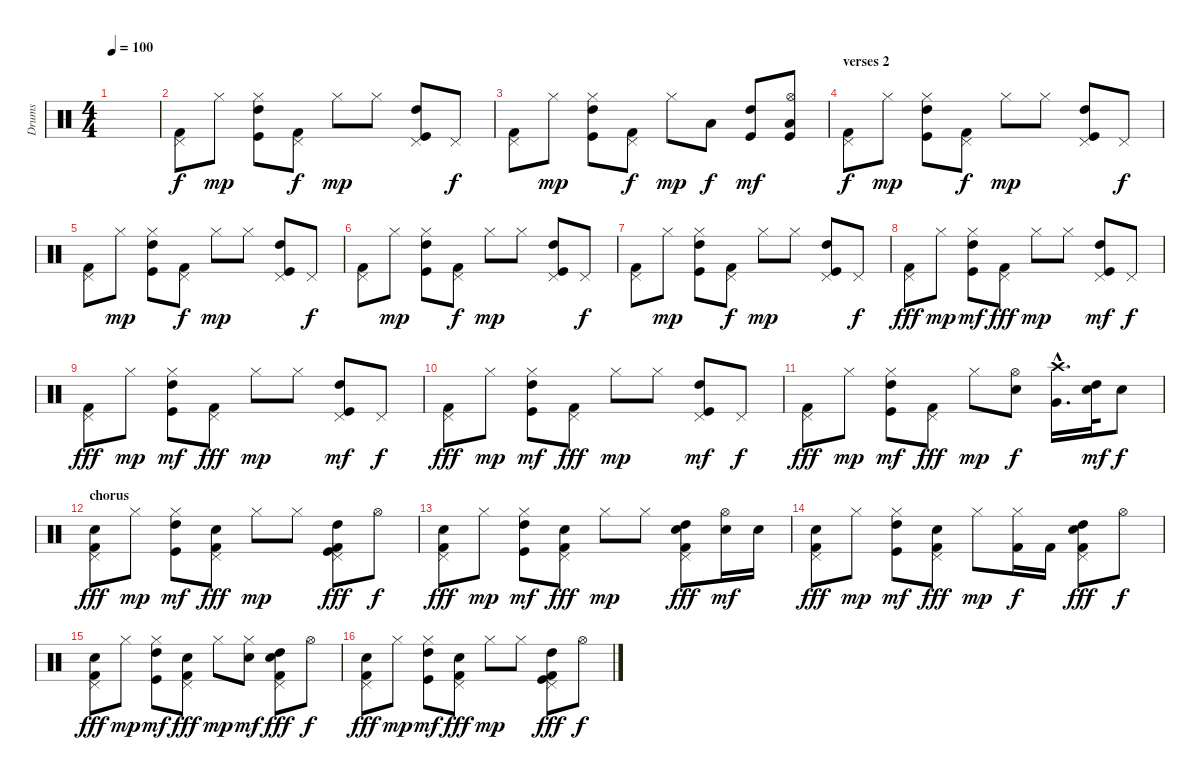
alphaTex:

\track ("Drums" "Drums") {instrument percussion}
\staff {score}
\articulation defaults
\ts (4 4)
\tempo 100
\clef neutral
\ks c
|
("Pedal Hi-Hat (hit)" "Kick (hit) 2").8{dy f} "Hi-Hat (closed)".8{dy mp} ("Hi-Hat (closed)" "Kick (hit)" "High Tom (hit)").8 ("Pedal Hi-Hat (hit)" "Kick (hit) 2").8{dy f} "Hi-Hat (closed)".8{dy mp} "Hi-Hat (closed)".8 ("Pedal Hi-Hat (hit)" "Kick (hit)" "High Tom (hit)").8 "Pedal Hi-Hat (hit)".8{dy f} |
("Pedal Hi-Hat (hit)" "Kick (hit) 2").8 "Hi-Hat (closed)".8{dy mp} ("Hi-Hat (closed)" "Kick (hit)" "High Tom (hit)").8 ("Pedal Hi-Hat (hit)" "Kick (hit) 2").8{dy f} "Hi-Hat (closed)".8{dy mp} "Low Tom (hit)".8{dy f} ("Kick (hit)" "High Tom (hit)").8{dy mf} ("Hi-Hat (open)" "Kick (hit)" "Low Floor Tom (hit)").8 |
\section ("" "verses 2")
("Pedal Hi-Hat (hit)" "Kick (hit) 2").8{dy f} "Hi-Hat (closed)".8{dy mp} ("Hi-Hat (closed)" "Kick (hit)" "High Tom (hit)").8 ("Pedal Hi-Hat (hit)" "Kick (hit) 2").8{dy f} "Hi-Hat (closed)".8{dy mp} "Hi-Hat (closed)".8 ("Pedal Hi-Hat (hit)" "Kick (hit)" "High Tom (hit)").8 "Pedal Hi-Hat (hit)".8{dy f} |
("Pedal Hi-Hat (hit)" "Kick (hit) 2").8 "Hi-Hat (closed)".8{dy mp} ("Hi-Hat (closed)" "Kick (hit)" "High Tom (hit)").8 ("Pedal Hi-Hat (hit)" "Kick (hit) 2").8{dy f} "Hi-Hat (closed)".8{dy mp} "Hi-Hat (closed)".8 ("Pedal Hi-Hat (hit)" "Kick (hit)" "High Tom (hit)").8 "Pedal Hi-Hat (hit)".8{dy f} |
("Pedal Hi-Hat (hit)" "Kick (hit) 2").8 "Hi-Hat (closed)".8{dy mp} ("Hi-Hat (closed)" "Kick (hit)" "High Tom (hit)").8 ("Pedal Hi-Hat (hit)" "Kick (hit) 2").8{dy f} "Hi-Hat (closed)".8{dy mp} "Hi-Hat (closed)".8 ("Pedal Hi-Hat (hit)" "Kick (hit)" "High Tom (hit)").8 "Pedal Hi-Hat (hit)".8{dy f} |
("Pedal Hi-Hat (hit)" "Kick (hit) 2").8 "Hi-Hat (closed)".8{dy mp} ("Hi-Hat (closed)" "Kick (hit)" "High Tom (hit)").8 ("Pedal Hi-Hat (hit)" "Kick (hit) 2").8{dy f} "Hi-Hat (closed)".8{dy mp} "Hi-Hat (closed)".8 ("Pedal Hi-Hat (hit)" "Kick (hit)" "High Tom (hit)").8 "Pedal Hi-Hat (hit)".8{dy f} |
("Pedal Hi-Hat (hit)" "Kick (hit) 2").8{dy fff} "Hi-Hat (closed)".8{dy mp} ("Hi-Hat (closed)" "Kick (hit)" "High Tom (hit)").8{dy mf} ("Pedal Hi-Hat (hit)" "Kick (hit) 2").8{dy fff} "Hi-Hat (closed)".8{dy mp} "Hi-Hat (closed)".8 ("Pedal Hi-Hat (hit)" "Kick (hit)" "High Tom (hit)").8{dy mf} "Pedal Hi-Hat (hit)".8{dy f} |
("Pedal Hi-Hat (hit)" "Kick (hit) 2").8{dy fff} "Hi-Hat (closed)".8{dy mp} ("Hi-Hat (closed)" "Kick (hit)" "High Tom (hit)").8{dy mf} ("Pedal Hi-Hat (hit)" "Kick (hit) 2").8{dy fff} "Hi-Hat (closed)".8{dy mp} "Hi-Hat (closed)".8 ("Pedal Hi-Hat (hit)" "Kick (hit)" "High Tom (hit)").8{dy mf} "Pedal Hi-Hat (hit)".8{dy f} |
("Pedal Hi-Hat (hit)" "Kick (hit) 2").8{dy fff} "Hi-Hat (closed)".8{dy mp} ("Hi-Hat (closed)" "Kick (hit)" "High Tom (hit)").8{dy mf} ("Pedal Hi-Hat (hit)" "Kick (hit) 2").8{dy fff} "Hi-Hat (closed)".8{dy mp} "Hi-Hat (closed)".8 ("Pedal Hi-Hat (hit)" "Kick (hit)" "High Tom (hit)").8{dy mf} "Pedal Hi-Hat (hit)".8{dy f} |
("Pedal Hi-Hat (hit)" "Kick (hit) 2").8{dy fff} "Hi-Hat (closed)".8{dy mp} ("Hi-Hat (closed)" "Kick (hit)" "High Tom (hit)").8{dy mf} ("Pedal Hi-Hat (hit)" "Kick (hit) 2").8{dy fff} "Hi-Hat (closed)".8{dy mp} ("Hi-Hat (open)" "Snare (hit) 2").8{dy f} ("Crash high (hit)"{hac} "Very Low Tom (hit)"{hac}).16{d} ("Snare (hit) 2" "High Tom (hit)").32{dy mf} "Snare (hit) 2".8{dy f} |
\section ("" "chorus")
("Pedal Hi-Hat (hit)" "Snare (hit) 2" "Kick (hit) 2").8{dy fff} "Hi-Hat (closed)".8{dy mp} ("Hi-Hat (closed)" "Kick (hit)" "High Tom (hit)").8{dy mf} ("Pedal Hi-Hat (hit)" "Snare (hit) 2" "Kick (hit) 2").8{dy fff} "Hi-Hat (closed)".8{dy mp} "Hi-Hat (closed)".8 ("Pedal Hi-Hat (hit)" "Kick (hit)" "High Tom (hit)" "Kick (hit) 2").8{dy fff} "Hi-Hat (open)".8{dy f} |
("Pedal Hi-Hat (hit)" "Snare (hit) 2" "Kick (hit) 2").8{dy fff} "Hi-Hat (closed)".8{dy mp} ("Hi-Hat (closed)" "Kick (hit)" "High Tom (hit)").8{dy mf} ("Pedal Hi-Hat (hit)" "Snare (hit) 2" "Kick (hit) 2").8{dy fff} "Hi-Hat (closed)".8{dy mp} "Hi-Hat (closed)".8 ("Pedal Hi-Hat (hit)" "Snare (hit) 2" "High Tom (hit)" "Kick (hit) 2").8{dy fff} ("Hi-Hat (open)" "Snare (hit) 2").16{dy mf} "Snare (hit) 2".16 |
("Pedal Hi-Hat (hit)" "Snare (hit) 2" "Kick (hit) 2").8{dy fff} "Hi-Hat (closed)".8{dy mp} ("Hi-Hat (closed)" "Kick (hit)" "High Tom (hit)").8{dy mf} ("Pedal Hi-Hat (hit)" "Snare (hit) 2" "Kick (hit) 2").8{dy fff} "Hi-Hat (closed)".8{dy mp} ("Hi-Hat (closed)" "Kick (hit) 2").16{dy f} "Kick (hit) 2".16 ("Pedal Hi-Hat (hit)" "Snare (hit) 2" "High Tom (hit)" "Kick (hit) 2").8{dy fff} "Hi-Hat (open)".8{dy f} |
("Pedal Hi-Hat (hit)" "Snare (hit) 2" "Kick (hit) 2").8{dy fff} "Hi-Hat (closed)".8{dy mp} ("Hi-Hat (closed)" "Kick (hit)" "High Tom (hit)").8{dy mf} ("Pedal Hi-Hat (hit)" "Snare (hit) 2" "Kick (hit) 2").8{dy fff} "Hi-Hat (closed)".8{dy mp} ("Hi-Hat (closed)" "Snare (hit) 2").8{dy mf} ("Pedal Hi-Hat (hit)" "Snare (hit) 2" "High Tom (hit)" "Kick (hit) 2").8{dy fff} "Hi-Hat (open)".8{dy f} |
("Pedal Hi-Hat (hit)" "Snare (hit) 2" "Kick (hit) 2").8{dy fff} "Hi-Hat (closed)".8{dy mp} ("Hi-Hat (closed)" "Kick (hit)" "High Tom (hit)").8{dy mf} ("Pedal Hi-Hat (hit)" "Snare (hit) 2" "Kick (hit) 2").8{dy fff} "Hi-Hat (closed)".8{dy mp} "Hi-Hat (closed)".8 ("Pedal Hi-Hat (hit)" "Kick (hit)" "High Tom (hit)" "Kick (hit) 2").8{dy fff} "Hi-Hat (open)".8{dy f}
